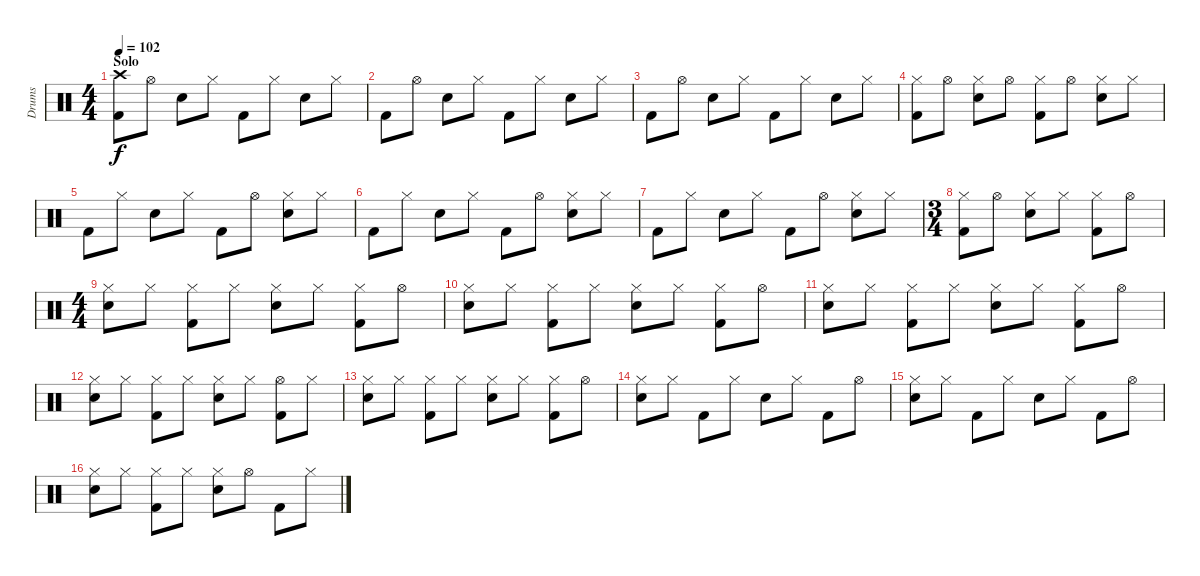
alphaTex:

\track ("Drums" "Drums") {instrument percussion}
\staff {score}
\articulation defaults
\ts (4 4)
\section ("" "Solo")
\tempo 102
\clef neutral
\ks c
("Crash high (hit)" "Kick (hit) 2").8{dy f} "Hi-Hat (open)".8 "Snare (hit) 2".8 "Hi-Hat (closed)".8 "Kick (hit) 2".8 "Hi-Hat (closed)".8 "Snare (hit) 2".8 "Hi-Hat (closed)".8 |
"Kick (hit) 2".8 "Hi-Hat (open)".8 "Snare (hit) 2".8 "Hi-Hat (closed)".8 "Kick (hit) 2".8 "Hi-Hat (closed)".8 "Snare (hit) 2".8 "Hi-Hat (closed)".8 |
"Kick (hit) 2".8 "Hi-Hat (open)".8 "Snare (hit) 2".8 "Hi-Hat (closed)".8 "Kick (hit) 2".8 "Hi-Hat (closed)".8 "Snare (hit) 2".8 "Hi-Hat (closed)".8 |
("Hi-Hat (closed)" "Kick (hit) 2").8 "Hi-Hat (open)".8 ("Hi-Hat (closed)" "Snare (hit) 2").8 "Hi-Hat (open)".8 ("Hi-Hat (closed)" "Kick (hit) 2").8 "Hi-Hat (open)".8 ("Hi-Hat (closed)" "Snare (hit) 2").8 "Hi-Hat (closed)".8 |
"Kick (hit) 2".8 "Hi-Hat (closed)".8 "Snare (hit) 2".8 "Hi-Hat (closed)".8 "Kick (hit) 2".8 "Hi-Hat (open)".8 ("Hi-Hat (closed)" "Snare (hit) 2").8 "Hi-Hat (closed)".8 |
"Kick (hit) 2".8 "Hi-Hat (closed)".8 "Snare (hit) 2".8 "Hi-Hat (closed)".8 "Kick (hit) 2".8 "Hi-Hat (open)".8 ("Hi-Hat (closed)" "Snare (hit) 2").8 "Hi-Hat (closed)".8 |
"Kick (hit) 2".8 "Hi-Hat (closed)".8 "Snare (hit) 2".8 "Hi-Hat (closed)".8 "Kick (hit) 2".8 "Hi-Hat (open)".8 ("Hi-Hat (closed)" "Snare (hit) 2").8 "Hi-Hat (closed)".8 |
\ts (3 4)
("Hi-Hat (closed)" "Kick (hit) 2").8 "Hi-Hat (open)".8 ("Hi-Hat (closed)" "Snare (hit) 2").8 "Hi-Hat (closed)".8 ("Hi-Hat (closed)" "Kick (hit) 2").8 "Hi-Hat (open)".8 |
\ts (4 4)
("Hi-Hat (closed)" "Snare (hit) 2").8 "Hi-Hat (closed)".8 ("Hi-Hat (closed)" "Kick (hit) 2").8 "Hi-Hat (closed)".8 ("Hi-Hat (closed)" "Snare (hit) 2").8 "Hi-Hat (closed)".8 ("Hi-Hat (closed)" "Kick (hit) 2").8 "Hi-Hat (open)".8 |
("Hi-Hat (closed)" "Snare (hit) 2").8 "Hi-Hat (closed)".8 ("Hi-Hat (closed)" "Kick (hit) 2").8 "Hi-Hat (closed)".8 ("Hi-Hat (closed)" "Snare (hit) 2").8 "Hi-Hat (closed)".8 ("Hi-Hat (closed)" "Kick (hit) 2").8 "Hi-Hat (open)".8 |
("Hi-Hat (closed)" "Snare (hit) 2").8 "Hi-Hat (closed)".8 ("Hi-Hat (closed)" "Kick (hit) 2").8 "Hi-Hat (closed)".8 ("Hi-Hat (closed)" "Snare (hit) 2").8 "Hi-Hat (closed)".8 ("Hi-Hat (closed)" "Kick (hit) 2").8 "Hi-Hat (open)".8 |
("Hi-Hat (closed)" "Snare (hit) 2").8 "Hi-Hat (closed)".8 ("Hi-Hat (closed)" "Kick (hit) 2").8 "Hi-Hat (closed)".8 ("Hi-Hat (closed)" "Snare (hit) 2").8 "Hi-Hat (closed)".8 ("Hi-Hat (open)" "Kick (hit) 2").8 "Hi-Hat (closed)".8 |
("Hi-Hat (closed)" "Snare (hit) 2").8 "Hi-Hat (closed)".8 ("Hi-Hat (closed)" "Kick (hit) 2").8 "Hi-Hat (closed)".8 ("Hi-Hat (closed)" "Snare (hit) 2").8 "Hi-Hat (closed)".8 ("Hi-Hat (closed)" "Kick (hit) 2").8 "Hi-Hat (open)".8 |
("Hi-Hat (closed)" "Snare (hit) 2").8 "Hi-Hat (closed)".8 "Kick (hit) 2".8 "Hi-Hat (closed)".8 "Snare (hit) 2".8 "Hi-Hat (closed)".8 "Kick (hit) 2".8 "Hi-Hat (open)".8 |
("Hi-Hat (closed)" "Snare (hit) 2").8 "Hi-Hat (closed)".8 "Kick (hit) 2".8 "Hi-Hat (closed)".8 "Snare (hit) 2".8 "Hi-Hat (closed)".8 "Kick (hit) 2".8 "Hi-Hat (open)".8 |
("Hi-Hat (closed)" "Snare (hit) 2").8 "Hi-Hat (closed)".8 ("Hi-Hat (closed)" "Kick (hit) 2").8 "Hi-Hat (closed)".8 ("Hi-Hat (closed)" "Snare (hit) 2").8 "Hi-Hat (open)".8 "Kick (hit) 2".8 "Hi-Hat (closed)".8
